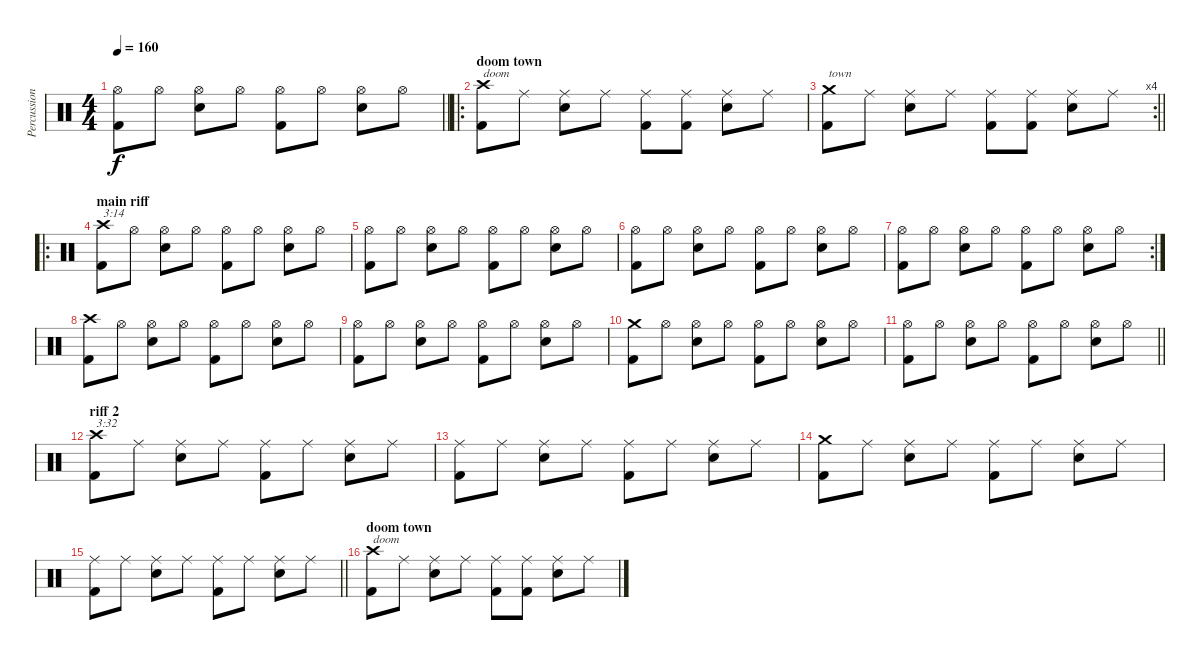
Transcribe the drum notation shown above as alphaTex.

\track ("Percussion 2 var" "Percussion") {mute instrument percussion}
\staff {score}
\articulation defaults
\ts (4 4)
\tempo 160
\clef neutral
\barLineRight lightlight
\ks c
("Hi-Hat (open)" "Kick (hit) 2").8{dy f} "Hi-Hat (open)".8 ("Hi-Hat (open)" "Snare (hit) 2").8 "Hi-Hat (open)".8 ("Hi-Hat (open)" "Kick (hit) 2").8 "Hi-Hat (open)".8 ("Hi-Hat (open)" "Snare (hit) 2").8 "Hi-Hat (open)".8 |
\ro
\section ("" "doom town")
("Crash high (hit)" "Kick (hit) 2").8{txt "doom"} "Ride (middle)".8 ("Ride (middle)" "Snare (hit) 2").8 "Ride (middle)".8 ("Ride (middle)" "Kick (hit) 2").8 ("Ride (middle)" "Kick (hit) 2").8 ("Ride (middle)" "Snare (hit) 2").8 "Ride (middle)".8 |
\rc 4
\barLineRight lightlight
("Crash medium (hit)" "Kick (hit) 2").8{txt "town"} "Ride (middle)".8 ("Ride (middle)" "Snare (hit) 2").8 "Ride (middle)".8 ("Ride (middle)" "Kick (hit) 2").8 ("Ride (middle)" "Kick (hit) 2").8 ("Ride (middle)" "Snare (hit) 2").8 "Ride (middle)".8 |
\ro
\section ("" "main riff")
("Crash high (hit)" "Kick (hit) 2").8{txt "3:14"} "Hi-Hat (open)".8 ("Hi-Hat (open)" "Snare (hit) 2").8 "Hi-Hat (open)".8 ("Hi-Hat (open)" "Kick (hit) 2").8 "Hi-Hat (open)".8 ("Hi-Hat (open)" "Snare (hit) 2").8 "Hi-Hat (open)".8 |
("Hi-Hat (open)" "Kick (hit) 2").8 "Hi-Hat (open)".8 ("Hi-Hat (open)" "Snare (hit) 2").8 "Hi-Hat (open)".8 ("Hi-Hat (open)" "Kick (hit) 2").8 "Hi-Hat (open)".8 ("Hi-Hat (open)" "Snare (hit) 2").8 "Hi-Hat (open)".8 |
("Hi-Hat (open)" "Kick (hit) 2").8 "Hi-Hat (open)".8 ("Hi-Hat (open)" "Snare (hit) 2").8 "Hi-Hat (open)".8 ("Hi-Hat (open)" "Kick (hit) 2").8 "Hi-Hat (open)".8 ("Hi-Hat (open)" "Snare (hit) 2").8 "Hi-Hat (open)".8 |
\rc 2
("Hi-Hat (open)" "Kick (hit) 2").8 "Hi-Hat (open)".8 ("Hi-Hat (open)" "Snare (hit) 2").8 "Hi-Hat (open)".8 ("Hi-Hat (open)" "Kick (hit) 2").8 "Hi-Hat (open)".8 ("Hi-Hat (open)" "Snare (hit) 2").8 "Hi-Hat (open)".8 |
("Crash high (hit)" "Kick (hit) 2").8 "Hi-Hat (open)".8 ("Hi-Hat (open)" "Snare (hit) 2").8 "Hi-Hat (open)".8 ("Hi-Hat (open)" "Kick (hit) 2").8 "Hi-Hat (open)".8 ("Hi-Hat (open)" "Snare (hit) 2").8 "Hi-Hat (open)".8 |
("Hi-Hat (open)" "Kick (hit) 2").8 "Hi-Hat (open)".8 ("Hi-Hat (open)" "Snare (hit) 2").8 "Hi-Hat (open)".8 ("Hi-Hat (open)" "Kick (hit) 2").8 "Hi-Hat (open)".8 ("Hi-Hat (open)" "Snare (hit) 2").8 "Hi-Hat (open)".8 |
("Crash medium (hit)" "Kick (hit) 2").8 "Hi-Hat (open)".8 ("Hi-Hat (open)" "Snare (hit) 2").8 "Hi-Hat (open)".8 ("Hi-Hat (open)" "Kick (hit) 2").8 "Hi-Hat (open)".8 ("Hi-Hat (open)" "Snare (hit) 2").8 "Hi-Hat (open)".8 |
\barLineRight lightlight
("Hi-Hat (open)" "Kick (hit) 2").8 "Hi-Hat (open)".8 ("Hi-Hat (open)" "Snare (hit) 2").8 "Hi-Hat (open)".8 ("Hi-Hat (open)" "Kick (hit) 2").8 "Hi-Hat (open)".8 ("Hi-Hat (open)" "Snare (hit) 2").8 "Hi-Hat (open)".8 |
\section ("" "riff 2")
("Crash high (hit)" "Kick (hit) 2").8{txt "3:32"} "Ride (middle)".8 ("Ride (middle)" "Snare (hit) 2").8 "Ride (middle)".8 ("Ride (middle)" "Kick (hit) 2").8 "Ride (middle)".8 ("Ride (middle)" "Snare (hit) 2").8 "Ride (middle)".8 |
("Ride (middle)" "Kick (hit) 2").8 "Ride (middle)".8 ("Ride (middle)" "Snare (hit) 2").8 "Ride (middle)".8 ("Ride (middle)" "Kick (hit) 2").8 "Ride (middle)".8 ("Ride (middle)" "Snare (hit) 2").8 "Ride (middle)".8 |
("Crash medium (hit)" "Kick (hit) 2").8 "Ride (middle)".8 ("Ride (middle)" "Snare (hit) 2").8 "Ride (middle)".8 ("Ride (middle)" "Kick (hit) 2").8 "Ride (middle)".8 ("Ride (middle)" "Snare (hit) 2").8 "Ride (middle)".8 |
\barLineRight lightlight
("Ride (middle)" "Kick (hit) 2").8 "Ride (middle)".8 ("Ride (middle)" "Snare (hit) 2").8 "Ride (middle)".8 ("Ride (middle)" "Kick (hit) 2").8 "Ride (middle)".8 ("Ride (middle)" "Snare (hit) 2").8 "Ride (middle)".8 |
\section ("" "doom town")
("Crash high (hit)" "Kick (hit) 2").8{txt "doom"} "Ride (middle)".8 ("Ride (middle)" "Snare (hit) 2").8 "Ride (middle)".8 ("Ride (middle)" "Kick (hit) 2").8 ("Ride (middle)" "Kick (hit) 2").8 ("Ride (middle)" "Snare (hit) 2").8 "Ride (middle)".8
